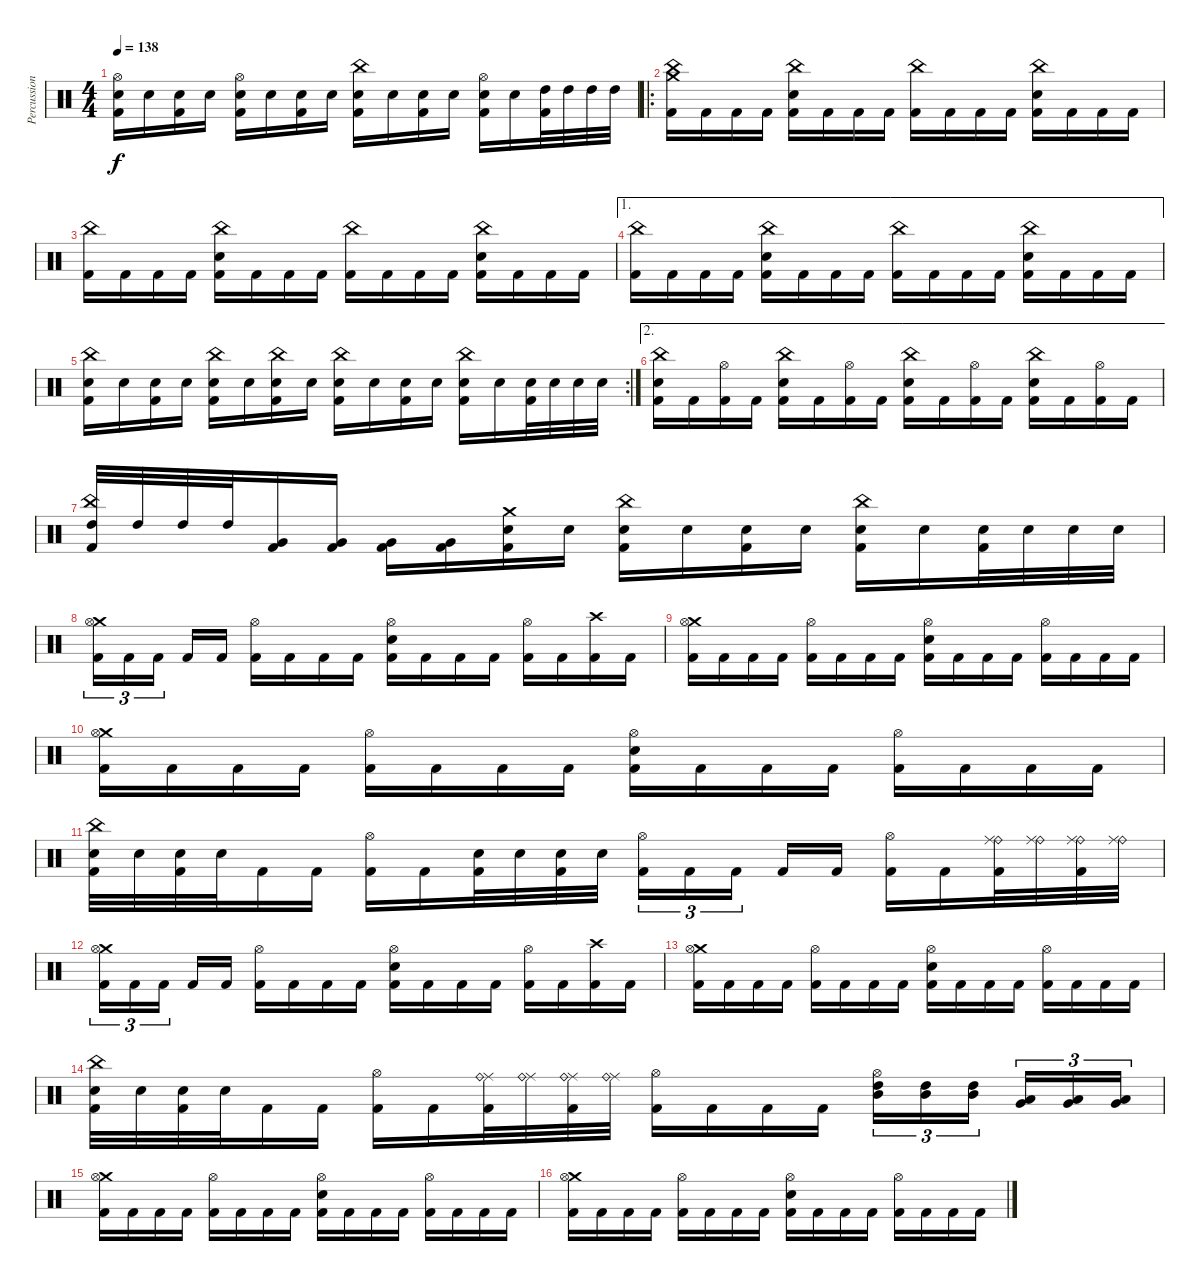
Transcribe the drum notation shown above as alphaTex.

\track ("Percussion" "Percussion") {instrument percussion}
\staff {score}
\articulation defaults
\ts (4 4)
\tempo 138
\clef neutral
\ks c
("Hi-Hat (open)" "Electric Snare (hit)" "Kick (hit) 2").16{dy f} "Electric Snare (hit)".16 ("Electric Snare (hit)" "Kick (hit) 2").16 "Electric Snare (hit)".16 ("Hi-Hat (open)" "Electric Snare (hit)" "Kick (hit) 2").16 "Electric Snare (hit)".16 ("Electric Snare (hit)" "Kick (hit) 2").16 "Electric Snare (hit)".16 ("China (hit)" "Electric Snare (hit)" "Kick (hit) 2").16 "Electric Snare (hit)".16 ("Electric Snare (hit)" "Kick (hit) 2").16 "Electric Snare (hit)".16 ("Hi-Hat (open)" "Electric Snare (hit)" "Kick (hit) 2").16 "Electric Snare (hit)".16 ("High Tom (hit)" "Kick (hit) 2").32 "High Tom (hit)".32 "High Tom (hit)".32 "High Tom (hit)".32 |
\ro
("China (hit)" "Crash medium (hit)" "Kick (hit) 2").16 "Kick (hit) 2".16 "Kick (hit) 2".16 "Kick (hit) 2".16 ("China (hit)" "Electric Snare (hit)" "Kick (hit) 2").16 "Kick (hit) 2".16 "Kick (hit) 2".16 "Kick (hit) 2".16 ("China (hit)" "Kick (hit) 2").16 "Kick (hit) 2".16 "Kick (hit) 2".16 "Kick (hit) 2".16 ("China (hit)" "Electric Snare (hit)" "Kick (hit) 2").16 "Kick (hit) 2".16 "Kick (hit) 2".16 "Kick (hit) 2".16 |
("China (hit)" "Kick (hit) 2").16 "Kick (hit) 2".16 "Kick (hit) 2".16 "Kick (hit) 2".16 ("China (hit)" "Electric Snare (hit)" "Kick (hit) 2").16 "Kick (hit) 2".16 "Kick (hit) 2".16 "Kick (hit) 2".16 ("China (hit)" "Kick (hit) 2").16 "Kick (hit) 2".16 "Kick (hit) 2".16 "Kick (hit) 2".16 ("China (hit)" "Electric Snare (hit)" "Kick (hit) 2").16 "Kick (hit) 2".16 "Kick (hit) 2".16 "Kick (hit) 2".16 |
\ae 1
("China (hit)" "Kick (hit) 2").16 "Kick (hit) 2".16 "Kick (hit) 2".16 "Kick (hit) 2".16 ("China (hit)" "Electric Snare (hit)" "Kick (hit) 2").16 "Kick (hit) 2".16 "Kick (hit) 2".16 "Kick (hit) 2".16 ("China (hit)" "Kick (hit) 2").16 "Kick (hit) 2".16 "Kick (hit) 2".16 "Kick (hit) 2".16 ("China (hit)" "Electric Snare (hit)" "Kick (hit) 2").16 "Kick (hit) 2".16 "Kick (hit) 2".16 "Kick (hit) 2".16 |
\rc 2
("China (hit)" "Electric Snare (hit)" "Kick (hit) 2").16 "Electric Snare (hit)".16 ("Electric Snare (hit)" "Kick (hit) 2").16 "Electric Snare (hit)".16 ("China (hit)" "Electric Snare (hit)" "Kick (hit) 2").16 "Electric Snare (hit)".16 ("China (hit)" "Electric Snare (hit)" "Kick (hit) 2").16 "Electric Snare (hit)".16 ("China (hit)" "Electric Snare (hit)" "Kick (hit) 2").16 "Electric Snare (hit)".16 ("Electric Snare (hit)" "Kick (hit) 2").16 "Electric Snare (hit)".16 ("China (hit)" "Electric Snare (hit)" "Kick (hit) 2").16 "Electric Snare (hit)".16 ("Electric Snare (hit)" "Kick (hit) 2").32 "Electric Snare (hit)".32 "Electric Snare (hit)".32 "Electric Snare (hit)".32 |
\ae 2
("China (hit)" "Electric Snare (hit)" "Kick (hit) 2").16 "Kick (hit) 2".16 ("Hi-Hat (open)" "Kick (hit) 2").16 "Kick (hit) 2".16 ("China (hit)" "Electric Snare (hit)" "Kick (hit) 2").16 "Kick (hit) 2".16 ("Hi-Hat (open)" "Kick (hit) 2").16 "Kick (hit) 2".16 ("China (hit)" "Electric Snare (hit)" "Kick (hit) 2").16 "Kick (hit) 2".16 ("Hi-Hat (open)" "Kick (hit) 2").16 "Kick (hit) 2".16 ("China (hit)" "Electric Snare (hit)" "Kick (hit) 2").16 "Kick (hit) 2".16 ("Hi-Hat (open)" "Kick (hit) 2").16 "Kick (hit) 2".16 |
("China (hit)" "High Tom (hit)" "Kick (hit) 2").32 "High Tom (hit)".32 "High Tom (hit)".32 "High Tom (hit)".32 ("Very Low Tom (hit)" "Kick (hit) 2").16 ("Very Low Tom (hit)" "Kick (hit) 2").16 ("Very Low Tom (hit)" "Kick (hit) 2").16 ("Very Low Tom (hit)" "Kick (hit) 2").16 ("Crash medium (hit)" "Electric Snare (hit)" "Kick (hit) 2").16 "Electric Snare (hit)".16 ("China (hit)" "Electric Snare (hit)" "Kick (hit) 2").16 "Electric Snare (hit)".16 ("Electric Snare (hit)" "Kick (hit) 2").16 "Electric Snare (hit)".16 ("China (hit)" "Electric Snare (hit)" "Kick (hit) 2").16 "Electric Snare (hit)".16 ("Electric Snare (hit)" "Kick (hit) 2").32 "Electric Snare (hit)".32 "Electric Snare (hit)".32 "Electric Snare (hit)".32 |
("Crash medium (hit)" "Hi-Hat (open)" "Kick (hit) 2").16{tu (3 2)} "Kick (hit) 2".16{tu (3 2)} "Kick (hit) 2".16{tu (3 2) beam splitsecondary} "Kick (hit) 2".16 "Kick (hit) 2".16 ("Hi-Hat (open)" "Kick (hit) 2").16 "Kick (hit) 2".16 "Kick (hit) 2".16 "Kick (hit) 2".16 ("Hi-Hat (open)" "Electric Snare (hit)" "Kick (hit) 2").16 "Kick (hit) 2".16 "Kick (hit) 2".16 "Kick (hit) 2".16 ("Hi-Hat (open)" "Kick (hit) 2").16 "Kick (hit) 2".16 ("Crash high (hit)" "Kick (hit) 2").16 "Kick (hit) 2".16 |
("Crash medium (hit)" "Hi-Hat (open)" "Kick (hit) 2").16 "Kick (hit) 2".16 "Kick (hit) 2".16 "Kick (hit) 2".16 ("Hi-Hat (open)" "Kick (hit) 2").16 "Kick (hit) 2".16 "Kick (hit) 2".16 "Kick (hit) 2".16 ("Hi-Hat (open)" "Electric Snare (hit)" "Kick (hit) 2").16 "Kick (hit) 2".16 "Kick (hit) 2".16 "Kick (hit) 2".16 ("Hi-Hat (open)" "Kick (hit) 2").16 "Kick (hit) 2".16 "Kick (hit) 2".16 "Kick (hit) 2".16 |
("Crash medium (hit)" "Hi-Hat (open)" "Kick (hit) 2").16 "Kick (hit) 2".16 "Kick (hit) 2".16 "Kick (hit) 2".16 ("Hi-Hat (open)" "Kick (hit) 2").16 "Kick (hit) 2".16 "Kick (hit) 2".16 "Kick (hit) 2".16 ("Hi-Hat (open)" "Electric Snare (hit)" "Kick (hit) 2").16 "Kick (hit) 2".16 "Kick (hit) 2".16 "Kick (hit) 2".16 ("Hi-Hat (open)" "Kick (hit) 2").16 "Kick (hit) 2".16 "Kick (hit) 2".16 "Kick (hit) 2".16 |
("China (hit)" "Electric Snare (hit)" "Kick (hit) 2").32 "Electric Snare (hit)".32 ("Electric Snare (hit)" "Kick (hit) 2").32 "Electric Snare (hit)".32 "Kick (hit) 2".16 "Kick (hit) 2".16 ("Hi-Hat (open)" "Kick (hit) 2").16 "Kick (hit) 2".16 ("Electric Snare (hit)" "Kick (hit) 2").32 "Electric Snare (hit)".32 ("Electric Snare (hit)" "Kick (hit) 2").32 "Electric Snare (hit)".32 ("Hi-Hat (open)" "Kick (hit) 2").16{tu (3 2)} "Kick (hit) 2".16{tu (3 2)} "Kick (hit) 2".16{tu (3 2) beam splitsecondary} "Kick (hit) 2".16 "Kick (hit) 2".16 ("Hi-Hat (open)" "Kick (hit) 2").16 "Kick (hit) 2".16 ("Ride (bell)" "Ride (middle)" "Kick (hit) 2").32 ("Ride (bell)" "Ride (middle)").32 ("Ride (bell)" "Ride (middle)" "Kick (hit) 2").32 ("Ride (bell)" "Ride (middle)").32 |
("Crash medium (hit)" "Hi-Hat (open)" "Kick (hit) 2").16{tu (3 2)} "Kick (hit) 2".16{tu (3 2)} "Kick (hit) 2".16{tu (3 2) beam splitsecondary} "Kick (hit) 2".16 "Kick (hit) 2".16 ("Hi-Hat (open)" "Kick (hit) 2").16 "Kick (hit) 2".16 "Kick (hit) 2".16 "Kick (hit) 2".16 ("Hi-Hat (open)" "Electric Snare (hit)" "Kick (hit) 2").16 "Kick (hit) 2".16 "Kick (hit) 2".16 "Kick (hit) 2".16 ("Hi-Hat (open)" "Kick (hit) 2").16 "Kick (hit) 2".16 ("Crash high (hit)" "Kick (hit) 2").16 "Kick (hit) 2".16 |
("Crash medium (hit)" "Hi-Hat (open)" "Kick (hit) 2").16 "Kick (hit) 2".16 "Kick (hit) 2".16 "Kick (hit) 2".16 ("Hi-Hat (open)" "Kick (hit) 2").16 "Kick (hit) 2".16 "Kick (hit) 2".16 "Kick (hit) 2".16 ("Hi-Hat (open)" "Electric Snare (hit)" "Kick (hit) 2").16 "Kick (hit) 2".16 "Kick (hit) 2".16 "Kick (hit) 2".16 ("Hi-Hat (open)" "Kick (hit) 2").16 "Kick (hit) 2".16 "Kick (hit) 2".16 "Kick (hit) 2".16 |
("China (hit)" "Electric Snare (hit)" "Kick (hit) 2").32 "Electric Snare (hit)".32 ("Electric Snare (hit)" "Kick (hit) 2").32 "Electric Snare (hit)".32 "Kick (hit) 2".16 "Kick (hit) 2".16 ("Hi-Hat (open)" "Kick (hit) 2").16 "Kick (hit) 2".16 ("Ride (middle)" "Ride (bell)" "Kick (hit) 2").32 ("Ride (middle)" "Ride (bell)").32 ("Ride (middle)" "Ride (bell)" "Kick (hit) 2").32 ("Ride (middle)" "Ride (bell)").32 ("Hi-Hat (open)" "Kick (hit) 2").16 "Kick (hit) 2".16 "Kick (hit) 2".16 "Kick (hit) 2".16 ("Hi-Hat (open)" "Mid Tom (hit)" "High Tom (hit)").16{tu (3 2)} ("Mid Tom (hit)" "High Tom (hit)").16{tu (3 2)} ("Mid Tom (hit)" "High Tom (hit)").16{tu (3 2) beam splitsecondary} ("Low Tom (hit)" "Very Low Tom (hit)").16{tu (3 2)} ("Low Tom (hit)" "Very Low Tom (hit)").16{tu (3 2)} ("Low Tom (hit)" "Very Low Tom (hit)").16{tu (3 2)} |
("Crash medium (hit)" "Hi-Hat (open)" "Kick (hit) 2").16 "Kick (hit) 2".16 "Kick (hit) 2".16 "Kick (hit) 2".16 ("Hi-Hat (open)" "Kick (hit) 2").16 "Kick (hit) 2".16 "Kick (hit) 2".16 "Kick (hit) 2".16 ("Hi-Hat (open)" "Electric Snare (hit)" "Kick (hit) 2").16 "Kick (hit) 2".16 "Kick (hit) 2".16 "Kick (hit) 2".16 ("Hi-Hat (open)" "Kick (hit) 2").16 "Kick (hit) 2".16 "Kick (hit) 2".16 "Kick (hit) 2".16 |
("Crash medium (hit)" "Hi-Hat (open)" "Kick (hit) 2").16 "Kick (hit) 2".16 "Kick (hit) 2".16 "Kick (hit) 2".16 ("Hi-Hat (open)" "Kick (hit) 2").16 "Kick (hit) 2".16 "Kick (hit) 2".16 "Kick (hit) 2".16 ("Hi-Hat (open)" "Electric Snare (hit)" "Kick (hit) 2").16 "Kick (hit) 2".16 "Kick (hit) 2".16 "Kick (hit) 2".16 ("Hi-Hat (open)" "Kick (hit) 2").16 "Kick (hit) 2".16 "Kick (hit) 2".16 "Kick (hit) 2".16
